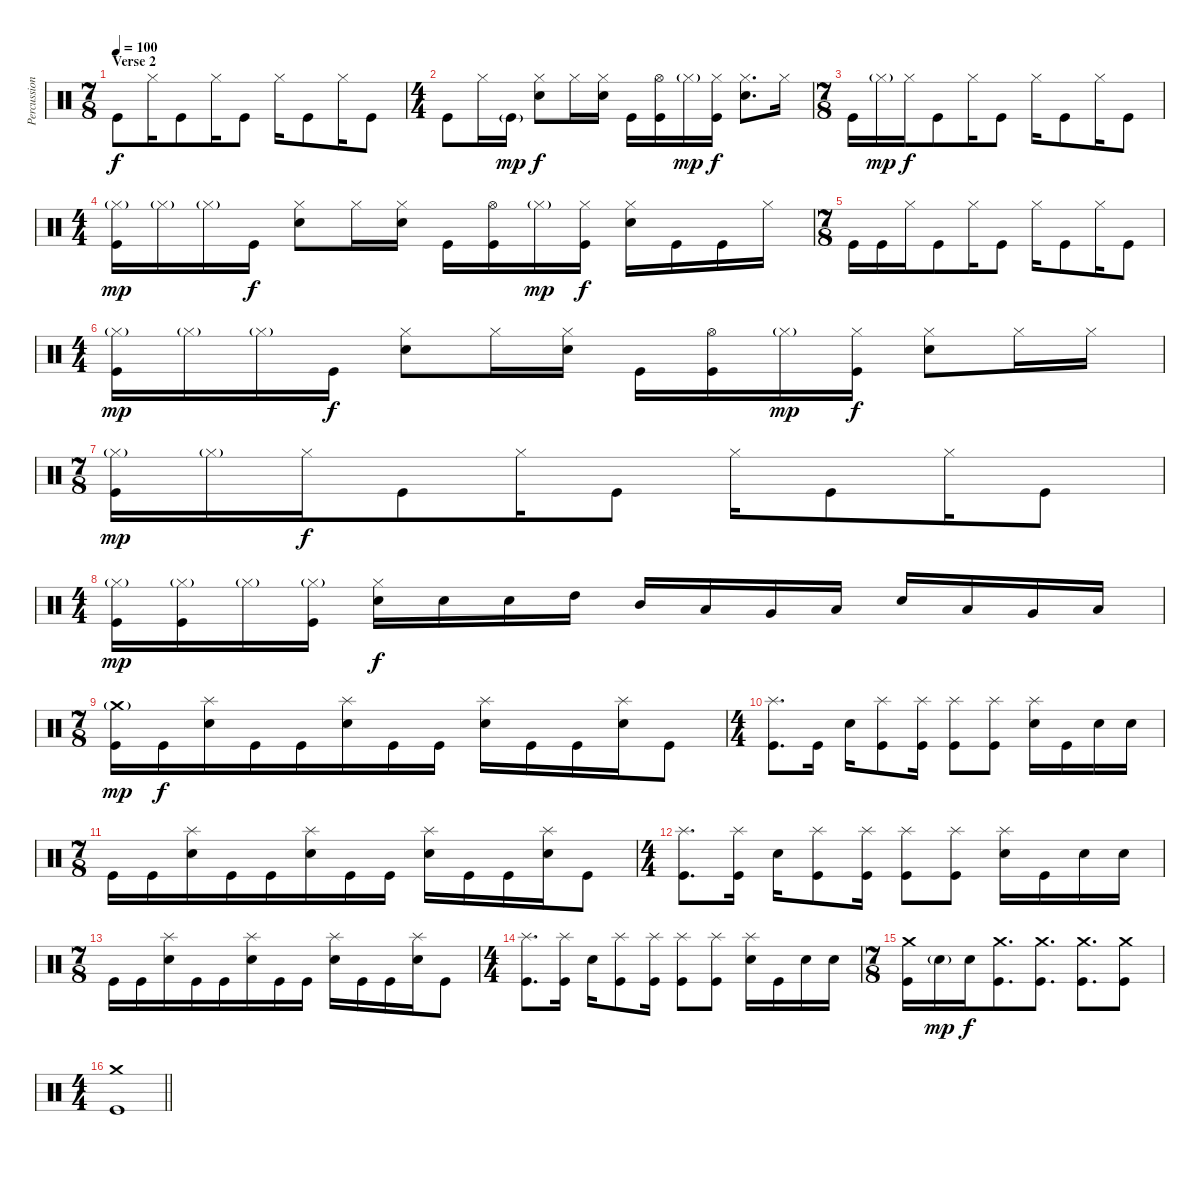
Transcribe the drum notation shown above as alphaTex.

\track ("Percussion" "Percussion") {instrument percussion}
\staff {score}
\articulation defaults
\ts (7 8)
\section ("" "Verse 2")
\tempo 100
\clef neutral
\ks c "Kick (hit)".8{dy f} "Hi-Hat (closed)".16 "Kick (hit)".8 "Hi-Hat (closed)".16 "Kick (hit)".8 "Hi-Hat (closed)".16 "Kick (hit)".8 "Hi-Hat (closed)".16 "Kick (hit)".8
|
\ts (4 4)
"Kick (hit)".8 "Hi-Hat (closed)".16 "Kick (hit)"{g}.16{dy mp} ("Hi-Hat (closed)" "Snare (hit) 2").8{dy f} "Hi-Hat (closed)".16 ("Hi-Hat (closed)" "Snare (hit) 2").16 "Kick (hit)".16 ("Hi-Hat (open)" "Kick (hit)").16 "Hi-Hat (closed)"{g}.16{dy mp} ("Hi-Hat (closed)" "Kick (hit)").16{dy f} ("Hi-Hat (closed)" "Snare (hit) 2").8{d} "Hi-Hat (closed)".16 |
\ts (7 8)
"Kick (hit)".16 "Hi-Hat (closed)"{g}.16{dy mp} "Hi-Hat (closed)".16{dy f} "Kick (hit)".8 "Hi-Hat (closed)".16 "Kick (hit)".8 "Hi-Hat (closed)".16 "Kick (hit)".8 "Hi-Hat (closed)".16 "Kick (hit)".8 |
\ts (4 4)
("Hi-Hat (closed)"{g} "Kick (hit)").16{dy mp} "Hi-Hat (closed)"{g}.16 "Hi-Hat (closed)"{g}.16 "Kick (hit)".16{dy f} ("Hi-Hat (closed)" "Snare (hit) 2").8 "Hi-Hat (closed)".16 ("Hi-Hat (closed)" "Snare (hit) 2").16 "Kick (hit)".16 ("Hi-Hat (open)" "Kick (hit)").16 "Hi-Hat (closed)"{g}.16{dy mp} ("Hi-Hat (closed)" "Kick (hit)").16{dy f} ("Hi-Hat (closed)" "Snare (hit) 2").16 "Kick (hit)".16 "Kick (hit)".16 "Hi-Hat (closed)".16 |
\ts (7 8)
"Kick (hit)".16 "Kick (hit)".16 "Hi-Hat (closed)".16 "Kick (hit)".8 "Hi-Hat (closed)".16 "Kick (hit)".8 "Hi-Hat (closed)".16 "Kick (hit)".8 "Hi-Hat (closed)".16 "Kick (hit)".8 |
\ts (4 4)
("Hi-Hat (closed)"{g} "Kick (hit)").16{dy mp} "Hi-Hat (closed)"{g}.16 "Hi-Hat (closed)"{g}.16 "Kick (hit)".16{dy f} ("Hi-Hat (closed)" "Snare (hit) 2").8 "Hi-Hat (closed)".16 ("Hi-Hat (closed)" "Snare (hit) 2").16 "Kick (hit)".16 ("Hi-Hat (open)" "Kick (hit)").16 "Hi-Hat (closed)"{g}.16{dy mp} ("Hi-Hat (closed)" "Kick (hit)").16{dy f} ("Hi-Hat (closed)" "Snare (hit) 2").8 "Hi-Hat (closed)".16 "Hi-Hat (closed)".16 |
\ts (7 8)
("Hi-Hat (closed)"{g} "Kick (hit)").16{dy mp} "Hi-Hat (closed)"{g}.16 "Hi-Hat (closed)".16{dy f} "Kick (hit)".8 "Hi-Hat (closed)".16 "Kick (hit)".8 "Hi-Hat (closed)".16 "Kick (hit)".8 "Hi-Hat (closed)".16 "Kick (hit)".8 |
\ts (4 4)
("Hi-Hat (closed)"{g} "Kick (hit)").16{dy mp} ("Hi-Hat (closed)"{g} "Kick (hit)").16 "Hi-Hat (closed)"{g}.16 ("Hi-Hat (closed)"{g} "Kick (hit)").16 ("Hi-Hat (closed)" "Snare (hit) 2").16{dy f} "Snare (hit) 2".16 "Snare (hit) 2".16 "High Tom (hit)".16 "Mid Tom (hit)".16 "Low Tom (hit)".16 "Very Low Tom (hit)".16 "Low Floor Tom (hit)".16 "Snare (hit) 2".16 "Low Tom (hit)".16 "Very Low Tom (hit)".16 "Low Floor Tom (hit)".16 |
\ts (7 8)
("Crash medium (hit)"{g} "Kick (hit)").16{dy mp} "Kick (hit)".16{dy f} ("Splash (hit)" "Snare (hit) 2").16 "Kick (hit)".16 "Kick (hit)".16 ("Splash (hit)" "Snare (hit) 2").16 "Kick (hit)".16 "Kick (hit)".16 ("Splash (hit)" "Snare (hit) 2").16 "Kick (hit)".16 "Kick (hit)".16 ("Splash (hit)" "Snare (hit) 2").16 "Kick (hit)".8 |
\ts (4 4)
("Splash (hit)" "Kick (hit)").8{d} "Kick (hit)".16 "Snare (hit) 2".16 ("Splash (hit)" "Kick (hit)").8 ("Splash (hit)" "Kick (hit)").16 ("Splash (hit)" "Kick (hit)").8 ("Splash (hit)" "Kick (hit)").8 ("Splash (hit)" "Snare (hit) 2").16 "Kick (hit)".16 "Snare (hit) 2".16 "Snare (hit) 2".16 |
\ts (7 8)
"Kick (hit)".16 "Kick (hit)".16 ("Splash (hit)" "Snare (hit) 2").16 "Kick (hit)".16 "Kick (hit)".16 ("Splash (hit)" "Snare (hit) 2").16 "Kick (hit)".16 "Kick (hit)".16 ("Splash (hit)" "Snare (hit) 2").16 "Kick (hit)".16 "Kick (hit)".16 ("Splash (hit)" "Snare (hit) 2").16 "Kick (hit)".8 |
\ts (4 4)
("Splash (hit)" "Kick (hit)").8{d} ("Splash (hit)" "Kick (hit)").16 "Snare (hit) 2".16 ("Splash (hit)" "Kick (hit)").8 ("Splash (hit)" "Kick (hit)").16 ("Splash (hit)" "Kick (hit)").8 ("Splash (hit)" "Kick (hit)").8 ("Splash (hit)" "Snare (hit) 2").16 "Kick (hit)".16 "Snare (hit) 2".16 "Snare (hit) 2".16 |
\ts (7 8)
"Kick (hit)".16 "Kick (hit)".16 ("Splash (hit)" "Snare (hit) 2").16 "Kick (hit)".16 "Kick (hit)".16 ("Splash (hit)" "Snare (hit) 2").16 "Kick (hit)".16 "Kick (hit)".16 ("Splash (hit)" "Snare (hit) 2").16 "Kick (hit)".16 "Kick (hit)".16 ("Splash (hit)" "Snare (hit) 2").16 "Kick (hit)".8 |
\ts (4 4)
("Splash (hit)" "Kick (hit)").8{d} ("Splash (hit)" "Kick (hit)").16 "Snare (hit) 2".16 ("Splash (hit)" "Kick (hit)").8 ("Splash (hit)" "Kick (hit)").16 ("Splash (hit)" "Kick (hit)").8 ("Splash (hit)" "Kick (hit)").8 ("Splash (hit)" "Snare (hit) 2").16 "Kick (hit)".16 "Snare (hit) 2".16 "Snare (hit) 2".16 |
\ts (7 8)
("Crash medium (hit)" "Kick (hit)").16 "Snare (hit) 2"{g}.16{dy mp} "Snare (hit) 2".16{dy f} ("Crash medium (hit)" "Kick (hit)").8{d} ("Crash medium (hit)" "Kick (hit)").8{d} ("Crash medium (hit)" "Kick (hit)").8{d} ("Crash medium (hit)" "Kick (hit)").8 |
\ts (4 4)
\barLineRight lightlight
("Crash medium (hit)" "Kick (hit)").1
